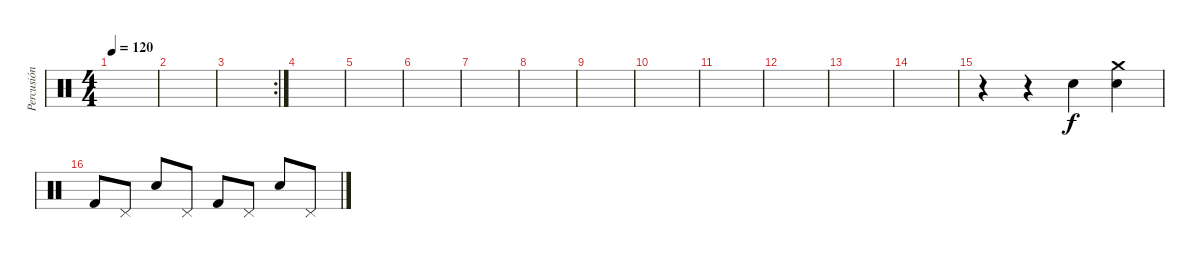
\track ("Percusión" "Percusión") {instrument percussion}
\staff {score}
\articulation defaults
\ts (4 4)
\tempo 120
\clef neutral
\ks c
|
|
\rc 2
|
|
|
|
|
|
|
|
|
|
|
|
r.4 r.4 "Snare (hit) 2".4 ("Snare (hit) 2" "Crash medium (hit)").4 |
"Kick (hit) 2".8 "Pedal Hi-Hat (hit)".8 "Snare (hit) 2".8 "Pedal Hi-Hat (hit)".8 "Kick (hit) 2".8 "Pedal Hi-Hat (hit)".8 "Snare (hit) 2".8 "Pedal Hi-Hat (hit)".8
